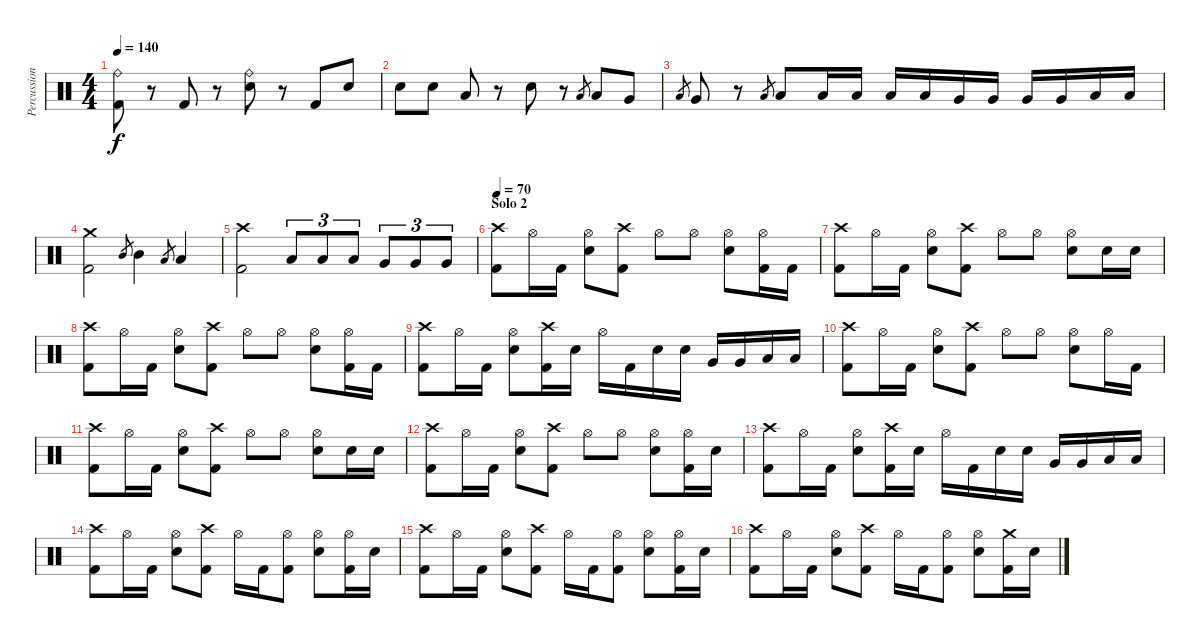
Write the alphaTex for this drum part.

\track ("Percussion" "Percussion") {instrument percussion}
\staff {score}
\articulation defaults
\ts (4 4)
\tempo 140
\clef neutral
\ks c
("Ride (bell)" "Kick (hit) 2").8{dy f} r.8 "Kick (hit) 2".8 r.8 ("Ride (bell)" "Electric Snare (hit)").8 r.8 "Kick (hit) 2".8 "Electric Snare (hit)".8 |
"Electric Snare (hit)".8 "Electric Snare (hit)".8 "Low Tom (hit)".8 r.8 "Electric Snare (hit)".8 r.8 "Low Tom (hit)".8{gr} "Low Tom (hit)".8 "Very Low Tom (hit)".8 |
"Low Floor Tom (hit)".8{gr} "Very Low Tom (hit)".8 r.8 "Low Floor Tom (hit)".8{gr} "Low Floor Tom (hit)".8 "Low Tom (hit)".16 "Low Tom (hit)".16 "Low Tom (hit)".16 "Low Tom (hit)".16 "Very Low Tom (hit)".16 "Very Low Tom (hit)".16 "Very Low Tom (hit)".16 "Very Low Tom (hit)".16 "Low Floor Tom (hit)".16 "Low Floor Tom (hit)".16 |
("Crash medium (hit)" "Kick (hit) 2").2 "Mid Tom (hit)".8{gr} "Mid Tom (hit)".4 "Low Tom (hit)".8{gr} "Low Tom (hit)".4 |
("Crash high (hit)" "Kick (hit) 2").2 "Low Tom (hit)".8{tu (3 2)} "Low Tom (hit)".8{tu (3 2)} "Low Tom (hit)".8{tu (3 2)} "Very Low Tom (hit)".8{tu (3 2)} "Very Low Tom (hit)".8{tu (3 2)} "Very Low Tom (hit)".8{tu (3 2)} |
\section ("" "Solo 2")
\tempo 70
("Crash high (hit)" "Kick (hit) 2").8 "Hi-Hat (open)".16 "Kick (hit) 2".16 ("Hi-Hat (open)" "Electric Snare (hit)").8 ("Crash high (hit)" "Kick (hit) 2").8 "Hi-Hat (open)".8 "Hi-Hat (open)".8 ("Hi-Hat (open)" "Electric Snare (hit)").8 ("Hi-Hat (open)" "Kick (hit) 2").16 "Kick (hit) 2".16 |
("Crash high (hit)" "Kick (hit) 2").8 "Hi-Hat (open)".16 "Kick (hit) 2".16 ("Hi-Hat (open)" "Electric Snare (hit)").8 ("Crash high (hit)" "Kick (hit) 2").8 "Hi-Hat (open)".8 "Hi-Hat (open)".8 ("Hi-Hat (open)" "Electric Snare (hit)").8 "Electric Snare (hit)".16 "Electric Snare (hit)".16 |
("Crash high (hit)" "Kick (hit) 2").8 "Hi-Hat (open)".16 "Kick (hit) 2".16 ("Hi-Hat (open)" "Electric Snare (hit)").8 ("Crash high (hit)" "Kick (hit) 2").8 "Hi-Hat (open)".8 "Hi-Hat (open)".8 ("Hi-Hat (open)" "Electric Snare (hit)").8 ("Hi-Hat (open)" "Kick (hit) 2").16 "Kick (hit) 2".16 |
("Crash high (hit)" "Kick (hit) 2").8 "Hi-Hat (open)".16 "Kick (hit) 2".16 ("Hi-Hat (open)" "Electric Snare (hit)").8 ("Crash high (hit)" "Kick (hit) 2").16 "Electric Snare (hit)".16 "Hi-Hat (open)".16 "Kick (hit) 2".16 "Electric Snare (hit)".16 "Electric Snare (hit)".16 "Very Low Tom (hit)".16 "Very Low Tom (hit)".16 "Low Floor Tom (hit)".16 "Low Floor Tom (hit)".16 |
("Crash high (hit)" "Kick (hit) 2").8 "Hi-Hat (open)".16 "Kick (hit) 2".16 ("Hi-Hat (open)" "Electric Snare (hit)").8 ("Crash high (hit)" "Kick (hit) 2").8 "Hi-Hat (open)".8 "Hi-Hat (open)".8 ("Hi-Hat (open)" "Electric Snare (hit)").8 "Hi-Hat (open)".16 "Kick (hit) 2".16 |
("Crash high (hit)" "Kick (hit) 2").8 "Hi-Hat (open)".16 "Kick (hit) 2".16 ("Hi-Hat (open)" "Electric Snare (hit)").8 ("Crash high (hit)" "Kick (hit) 2").8 "Hi-Hat (open)".8 "Hi-Hat (open)".8 ("Hi-Hat (open)" "Electric Snare (hit)").8 "Electric Snare (hit)".16 "Electric Snare (hit)".16 |
("Crash high (hit)" "Kick (hit) 2").8 "Hi-Hat (open)".16 "Kick (hit) 2".16 ("Hi-Hat (open)" "Electric Snare (hit)").8 ("Crash high (hit)" "Kick (hit) 2").8 "Hi-Hat (open)".8 "Hi-Hat (open)".8 ("Hi-Hat (open)" "Electric Snare (hit)").8 ("Hi-Hat (open)" "Kick (hit) 2").16 "Electric Snare (hit)".16 |
("Crash high (hit)" "Kick (hit) 2").8 "Hi-Hat (open)".16 "Kick (hit) 2".16 ("Hi-Hat (open)" "Electric Snare (hit)").8 ("Crash high (hit)" "Kick (hit) 2").16 "Electric Snare (hit)".16 "Hi-Hat (open)".16 "Kick (hit) 2".16 "Electric Snare (hit)".16 "Electric Snare (hit)".16 "Very Low Tom (hit)".16 "Very Low Tom (hit)".16 "Low Floor Tom (hit)".16 "Low Floor Tom (hit)".16 |
("Crash high (hit)" "Kick (hit) 2").8 "Hi-Hat (open)".16 "Kick (hit) 2".16 ("Hi-Hat (open)" "Electric Snare (hit)").8 ("Crash high (hit)" "Kick (hit) 2").8 "Hi-Hat (open)".16 "Kick (hit) 2".16 ("Hi-Hat (open)" "Kick (hit) 2").8 ("Hi-Hat (open)" "Electric Snare (hit)").8 ("Hi-Hat (open)" "Kick (hit) 2").16 "Electric Snare (hit)".16 |
("Crash high (hit)" "Kick (hit) 2").8 "Hi-Hat (open)".16 "Kick (hit) 2".16 ("Hi-Hat (open)" "Electric Snare (hit)").8 ("Crash high (hit)" "Kick (hit) 2").8 "Hi-Hat (open)".16 "Kick (hit) 2".16 ("Hi-Hat (open)" "Kick (hit) 2").8 ("Hi-Hat (open)" "Electric Snare (hit)").8 ("Hi-Hat (open)" "Kick (hit) 2").16 "Electric Snare (hit)".16 |
("Crash high (hit)" "Kick (hit) 2").8 "Hi-Hat (open)".16 "Kick (hit) 2".16 ("Hi-Hat (open)" "Electric Snare (hit)").8 ("Crash high (hit)" "Kick (hit) 2").8 "Hi-Hat (open)".16 "Kick (hit) 2".16 ("Hi-Hat (open)" "Kick (hit) 2").8 ("Hi-Hat (open)" "Electric Snare (hit)").8 ("Crash medium (hit)" "Kick (hit) 2").16 "Electric Snare (hit)".16
